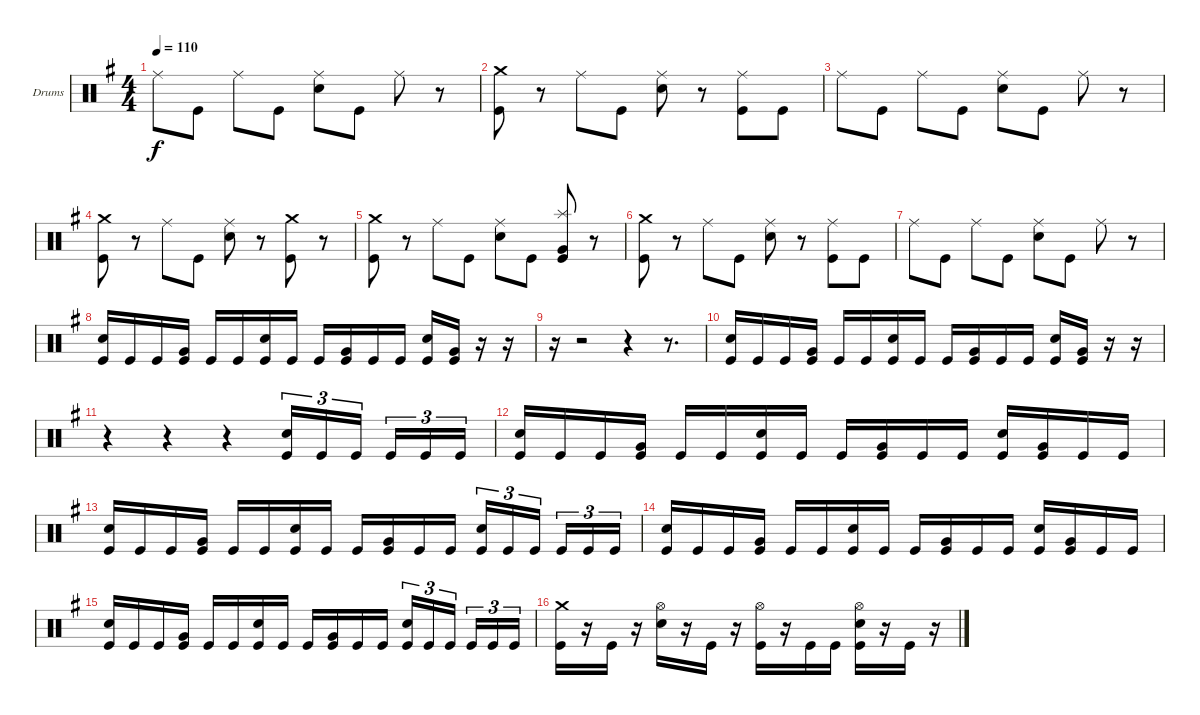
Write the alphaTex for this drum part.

\bracketExtendMode groupsimilarinstruments
\firstSystemTrackNameOrientation horizontal
\otherSystemsTrackNameOrientation horizontal
\track ("Drumkit" "Drums") {instrument percussion}
\staff {score}
\articulation defaults
\ts (4 4)
\tempo 110
\clef neutral
\ks g "Ride (middle)".8{dy f} "Kick (hit)".8 "Ride (middle)".8 "Kick (hit)".8
("Ride (middle)" "Snare (hit) 2").8 "Kick (hit)".8 "Ride (middle)".8 r.8 |
("Crash medium (hit)" "Kick (hit)").8 r.8 "Ride (middle)".8 "Kick (hit)".8 ("Ride (middle)" "Snare (hit) 2").8 r.8 ("Ride (middle)" "Kick (hit)").8 "Kick (hit)".8 |
"Ride (middle)".8 "Kick (hit)".8 "Ride (middle)".8 "Kick (hit)".8 ("Ride (middle)" "Snare (hit) 2").8 "Kick (hit)".8 "Ride (middle)".8 r.8 |
("Crash medium (hit)" "Kick (hit)").8 r.8 "Ride (middle)".8 "Kick (hit)".8 ("Ride (middle)" "Snare (hit) 2").8 r.8 ("Crash medium (hit)" "Kick (hit)").8 r.8 |
("Crash medium (hit)" "Kick (hit)").8 r.8 "Ride (middle)".8 "Kick (hit)".8 ("Ride (middle)" "Snare (hit) 2").8 "Kick (hit)".8 ("Splash (hit)" "Very Low Tom (hit)" "Kick (hit)").8 r.8 |
("Crash medium (hit)" "Kick (hit)").8 r.8 "Ride (middle)".8 "Kick (hit)".8 ("Ride (middle)" "Snare (hit) 2").8 r.8 ("Ride (middle)" "Kick (hit)").8 "Kick (hit)".8 |
"Ride (middle)".8 "Kick (hit)".8 "Ride (middle)".8 "Kick (hit)".8 ("Ride (middle)" "Snare (hit) 2").8 "Kick (hit)".8 "Ride (middle)".8 r.8 |
("Snare (hit) 2" "Kick (hit)").16 "Kick (hit)".16 "Kick (hit)".16 ("Very Low Tom (hit)" "Kick (hit)").16 "Kick (hit)".16 "Kick (hit)".16 ("Snare (hit) 2" "Kick (hit)").16 "Kick (hit)".16 "Kick (hit)".16 ("Very Low Tom (hit)" "Kick (hit)").16 "Kick (hit)".16 "Kick (hit)".16 ("Snare (hit) 2" "Kick (hit)").16 ("Very Low Tom (hit)" "Kick (hit)").16 r.16 r.16 |
r.16 r.2 r.4 r.8{d} |
("Snare (hit) 2" "Kick (hit)").16 "Kick (hit)".16 "Kick (hit)".16 ("Very Low Tom (hit)" "Kick (hit)").16 "Kick (hit)".16 "Kick (hit)".16 ("Snare (hit) 2" "Kick (hit)").16 "Kick (hit)".16 "Kick (hit)".16 ("Very Low Tom (hit)" "Kick (hit)").16 "Kick (hit)".16 "Kick (hit)".16 ("Snare (hit) 2" "Kick (hit)").16 ("Very Low Tom (hit)" "Kick (hit)").16 r.16 r.16 |
r.4 r.4 r.4 ("Snare (hit) 2" "Kick (hit)").16{tu (3 2)} "Kick (hit)".16{tu (3 2)} "Kick (hit)".16{tu (3 2)} "Kick (hit)".16{tu (3 2)} "Kick (hit)".16{tu (3 2)} "Kick (hit)".16{tu (3 2)} |
("Snare (hit) 2" "Kick (hit)").16 "Kick (hit)".16 "Kick (hit)".16 ("Very Low Tom (hit)" "Kick (hit)").16 "Kick (hit)".16 "Kick (hit)".16 ("Snare (hit) 2" "Kick (hit)").16 "Kick (hit)".16 "Kick (hit)".16 ("Very Low Tom (hit)" "Kick (hit)").16 "Kick (hit)".16 "Kick (hit)".16 ("Snare (hit) 2" "Kick (hit)").16 ("Very Low Tom (hit)" "Kick (hit)").16 "Kick (hit)".16 "Kick (hit)".16 |
("Snare (hit) 2" "Kick (hit)").16 "Kick (hit)".16 "Kick (hit)".16 ("Very Low Tom (hit)" "Kick (hit)").16 "Kick (hit)".16 "Kick (hit)".16 ("Snare (hit) 2" "Kick (hit)").16 "Kick (hit)".16 "Kick (hit)".16 ("Very Low Tom (hit)" "Kick (hit)").16 "Kick (hit)".16 "Kick (hit)".16 ("Snare (hit) 2" "Kick (hit)").16{tu (3 2)} "Kick (hit)".16{tu (3 2)} "Kick (hit)".16{tu (3 2)} "Kick (hit)".16{tu (3 2)} "Kick (hit)".16{tu (3 2)} "Kick (hit)".16{tu (3 2)} |
("Snare (hit) 2" "Kick (hit)").16 "Kick (hit)".16 "Kick (hit)".16 ("Very Low Tom (hit)" "Kick (hit)").16 "Kick (hit)".16 "Kick (hit)".16 ("Snare (hit) 2" "Kick (hit)").16 "Kick (hit)".16 "Kick (hit)".16 ("Very Low Tom (hit)" "Kick (hit)").16 "Kick (hit)".16 "Kick (hit)".16 ("Snare (hit) 2" "Kick (hit)").16 ("Very Low Tom (hit)" "Kick (hit)").16 "Kick (hit)".16 "Kick (hit)".16 |
("Snare (hit) 2" "Kick (hit)").16 "Kick (hit)".16 "Kick (hit)".16 ("Very Low Tom (hit)" "Kick (hit)").16 "Kick (hit)".16 "Kick (hit)".16 ("Snare (hit) 2" "Kick (hit)").16 "Kick (hit)".16 "Kick (hit)".16 ("Very Low Tom (hit)" "Kick (hit)").16 "Kick (hit)".16 "Kick (hit)".16 ("Snare (hit) 2" "Kick (hit)").16{tu (3 2)} "Kick (hit)".16{tu (3 2)} "Kick (hit)".16{tu (3 2)} "Kick (hit)".16{tu (3 2)} "Kick (hit)".16{tu (3 2)} "Kick (hit)".16{tu (3 2)} |
("Crash medium (hit)" "Kick (hit)").16 r.16 "Kick (hit)".16 r.16 ("Hi-Hat (open)" "Snare (hit) 2").16 r.16 "Kick (hit)".16 r.16 ("Hi-Hat (open)" "Kick (hit)").16 r.16 "Kick (hit)".16 "Kick (hit)".16 ("Hi-Hat (open)" "Snare (hit) 2" "Kick (hit)").16 r.16 "Kick (hit)".16 r.16
